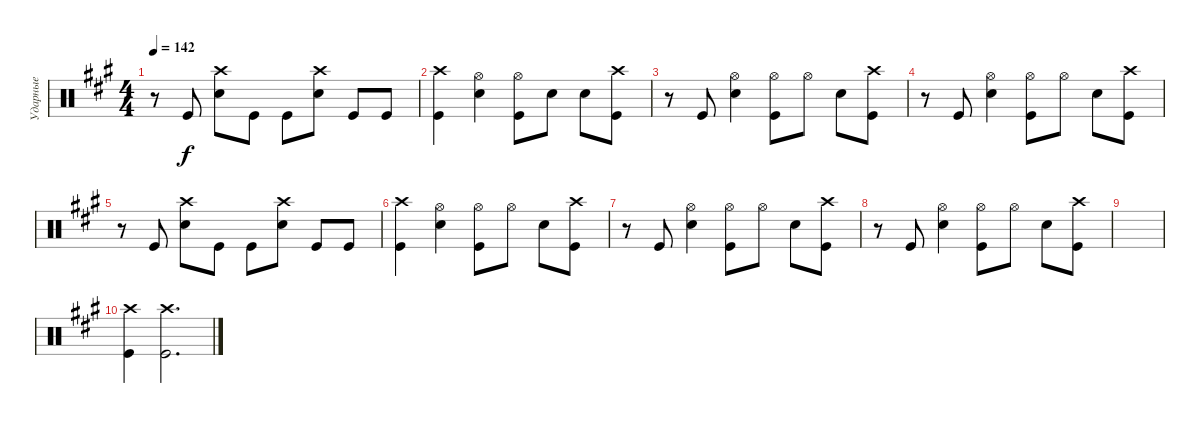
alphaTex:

\track ("Ударные" "Ударные") {instrument percussion}
\staff {score}
\articulation defaults
\ts (4 4)
\tempo 142
\clef neutral
\ks f#minor
r.8{dy f} "Kick (hit)".8 ("Snare (hit) 2" "Crash high (hit)").8 "Kick (hit)".8 "Kick (hit)".8 ("Snare (hit) 2" "Crash high (hit)").8 "Kick (hit)".8 "Kick (hit)".8 |
("Kick (hit)" "Crash high (hit)").4 ("Snare (hit) 2" "Hi-Hat (open)").4 ("Kick (hit)" "Hi-Hat (open)").8 "Snare (hit) 2".8 "Snare (hit) 2".8 ("Kick (hit)" "Crash high (hit)").8 |
r.8 "Kick (hit)".8 ("Snare (hit) 2" "Hi-Hat (open)").4 ("Kick (hit)" "Hi-Hat (open)").8 "Hi-Hat (open)".8 "Snare (hit) 2".8 ("Kick (hit)" "Crash high (hit)").8 |
r.8 "Kick (hit)".8 ("Snare (hit) 2" "Hi-Hat (open)").4 ("Kick (hit)" "Hi-Hat (open)").8 "Hi-Hat (open)".8 "Snare (hit) 2".8 ("Kick (hit)" "Crash high (hit)").8 |
r.8 "Kick (hit)".8 ("Snare (hit) 2" "Crash high (hit)").8 "Kick (hit)".8 "Kick (hit)".8 ("Snare (hit) 2" "Crash high (hit)").8 "Kick (hit)".8 "Kick (hit)".8 |
("Kick (hit)" "Crash high (hit)").4 ("Snare (hit) 2" "Hi-Hat (open)").4 ("Kick (hit)" "Hi-Hat (open)").8 "Hi-Hat (open)".8 "Snare (hit) 2".8 ("Kick (hit)" "Crash high (hit)").8 |
r.8 "Kick (hit)".8 ("Snare (hit) 2" "Hi-Hat (open)").4 ("Kick (hit)" "Hi-Hat (open)").8 "Hi-Hat (open)".8 "Snare (hit) 2".8 ("Kick (hit)" "Crash high (hit)").8 |
r.8 "Kick (hit)".8 ("Snare (hit) 2" "Hi-Hat (open)").4 ("Kick (hit)" "Hi-Hat (open)").8 "Hi-Hat (open)".8 "Snare (hit) 2".8 ("Kick (hit)" "Crash high (hit)").8 |
|
("Kick (hit)" "Crash high (hit)").4 ("Kick (hit)" "Crash high (hit)").2{d}
